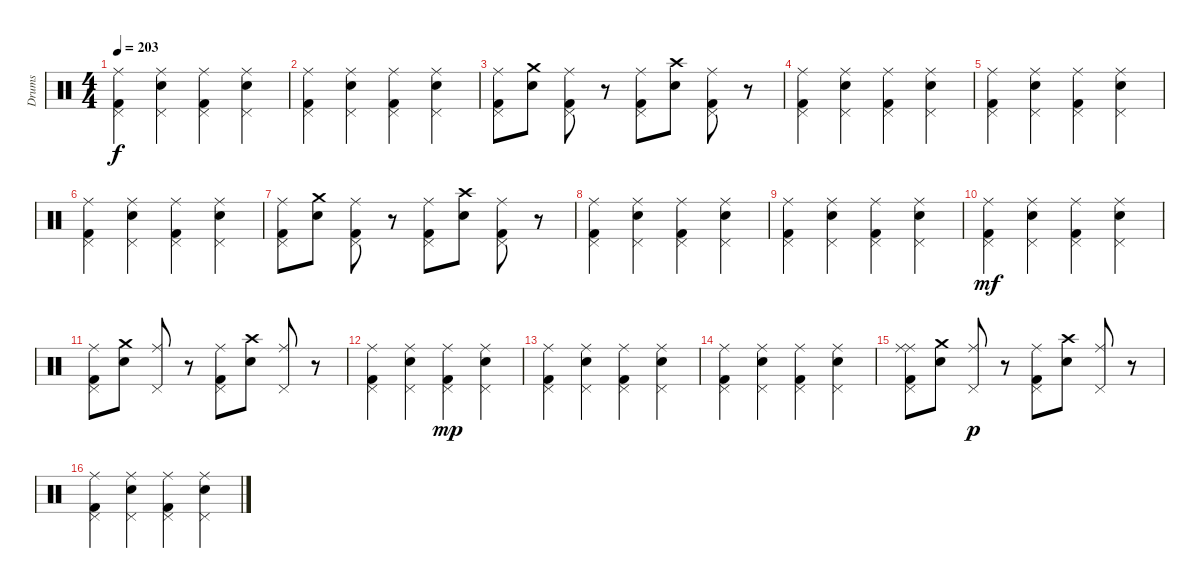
\track ("Drums" "Drums") {instrument percussion}
\staff {score}
\articulation defaults
\ts (4 4)
\tempo 203
\clef neutral
\ks c
("Ride (middle)" "Pedal Hi-Hat (hit)" "Kick (hit) 2").4{dy f} ("Ride (middle)" "Pedal Hi-Hat (hit)" "Snare (hit) 2").4 ("Ride (middle)" "Pedal Hi-Hat (hit)" "Kick (hit) 2").4 ("Ride (middle)" "Pedal Hi-Hat (hit)" "Snare (hit) 2").4 |
("Ride (middle)" "Pedal Hi-Hat (hit)" "Kick (hit) 2").4 ("Ride (middle)" "Pedal Hi-Hat (hit)" "Snare (hit) 2").4 ("Ride (middle)" "Pedal Hi-Hat (hit)" "Kick (hit) 2").4 ("Ride (middle)" "Pedal Hi-Hat (hit)" "Snare (hit) 2").4 |
("Ride (middle)" "Pedal Hi-Hat (hit)" "Kick (hit) 2").8 ("Crash medium (hit)" "Snare (hit) 2").8 ("Kick (hit) 2" "Ride (middle)" "Pedal Hi-Hat (hit)").8 r.8 ("Ride (middle)" "Pedal Hi-Hat (hit)" "Kick (hit) 2").8 ("Crash high (hit)" "Snare (hit) 2").8 ("Kick (hit) 2" "Ride (middle)" "Pedal Hi-Hat (hit)").8 r.8 |
("Ride (middle)" "Pedal Hi-Hat (hit)" "Kick (hit) 2").4 ("Ride (middle)" "Pedal Hi-Hat (hit)" "Snare (hit) 2").4 ("Ride (middle)" "Pedal Hi-Hat (hit)" "Kick (hit) 2").4 ("Ride (middle)" "Pedal Hi-Hat (hit)" "Snare (hit) 2").4 |
("Ride (middle)" "Pedal Hi-Hat (hit)" "Kick (hit) 2").4 ("Ride (middle)" "Pedal Hi-Hat (hit)" "Snare (hit) 2").4 ("Ride (middle)" "Pedal Hi-Hat (hit)" "Kick (hit) 2").4 ("Ride (middle)" "Pedal Hi-Hat (hit)" "Snare (hit) 2").4 |
("Ride (middle)" "Pedal Hi-Hat (hit)" "Kick (hit) 2").4 ("Ride (middle)" "Pedal Hi-Hat (hit)" "Snare (hit) 2").4 ("Ride (middle)" "Pedal Hi-Hat (hit)" "Kick (hit) 2").4 ("Ride (middle)" "Pedal Hi-Hat (hit)" "Snare (hit) 2").4 |
("Ride (middle)" "Pedal Hi-Hat (hit)" "Kick (hit) 2").8 ("Crash medium (hit)" "Snare (hit) 2").8 ("Kick (hit) 2" "Ride (middle)" "Pedal Hi-Hat (hit)").8 r.8 ("Ride (middle)" "Pedal Hi-Hat (hit)" "Kick (hit) 2").8 ("Crash high (hit)" "Snare (hit) 2").8 ("Kick (hit) 2" "Ride (middle)" "Pedal Hi-Hat (hit)").8 r.8 |
("Ride (middle)" "Pedal Hi-Hat (hit)" "Kick (hit) 2").4 ("Ride (middle)" "Pedal Hi-Hat (hit)" "Snare (hit) 2").4 ("Ride (middle)" "Pedal Hi-Hat (hit)" "Kick (hit) 2").4 ("Ride (middle)" "Pedal Hi-Hat (hit)" "Snare (hit) 2").4 |
("Ride (middle)" "Pedal Hi-Hat (hit)" "Kick (hit) 2").4 ("Ride (middle)" "Pedal Hi-Hat (hit)" "Snare (hit) 2").4 ("Ride (middle)" "Pedal Hi-Hat (hit)" "Kick (hit) 2").4 ("Ride (middle)" "Pedal Hi-Hat (hit)" "Snare (hit) 2").4 |
("Ride (middle)" "Pedal Hi-Hat (hit)" "Kick (hit) 2").4{dy mf} ("Ride (middle)" "Pedal Hi-Hat (hit)" "Snare (hit) 2").4 ("Ride (middle)" "Pedal Hi-Hat (hit)" "Kick (hit) 2").4 ("Ride (middle)" "Pedal Hi-Hat (hit)" "Snare (hit) 2").4 |
("Ride (middle)" "Pedal Hi-Hat (hit)" "Kick (hit) 2").8 ("Snare (hit) 2" "Crash medium (hit)").8 ("Ride (middle)" "Pedal Hi-Hat (hit)").8 r.8 ("Ride (middle)" "Pedal Hi-Hat (hit)" "Kick (hit) 2").8 ("Crash high (hit)" "Snare (hit) 2").8 ("Ride (middle)" "Pedal Hi-Hat (hit)").8 r.8 |
("Ride (middle)" "Pedal Hi-Hat (hit)" "Kick (hit) 2").4 ("Ride (middle)" "Snare (hit) 2" "Pedal Hi-Hat (hit)").4 ("Ride (middle)" "Pedal Hi-Hat (hit)" "Kick (hit) 2").4{dy mp} ("Ride (middle)" "Pedal Hi-Hat (hit)" "Snare (hit) 2").4 |
("Ride (middle)" "Pedal Hi-Hat (hit)" "Kick (hit) 2").4 ("Ride (middle)" "Pedal Hi-Hat (hit)" "Snare (hit) 2").4 ("Ride (middle)" "Pedal Hi-Hat (hit)" "Kick (hit) 2").4 ("Ride (middle)" "Pedal Hi-Hat (hit)" "Snare (hit) 2").4 |
("Ride (middle)" "Pedal Hi-Hat (hit)" "Kick (hit) 2").4 ("Ride (middle)" "Pedal Hi-Hat (hit)" "Snare (hit) 2").4 ("Ride (middle)" "Pedal Hi-Hat (hit)" "Kick (hit) 2").4 ("Ride (middle)" "Pedal Hi-Hat (hit)" "Snare (hit) 2").4 |
("Ride (middle)" "Ride (middle)" "Pedal Hi-Hat (hit)" "Kick (hit) 2").8 ("Snare (hit) 2" "Crash medium (hit)").8 ("Ride (middle)" "Pedal Hi-Hat (hit)").8{dy p} r.8 ("Ride (middle)" "Pedal Hi-Hat (hit)" "Kick (hit) 2").8 ("Crash high (hit)" "Snare (hit) 2").8 ("Ride (middle)" "Pedal Hi-Hat (hit)").8 r.8 |
("Ride (middle)" "Pedal Hi-Hat (hit)" "Kick (hit) 2").4 ("Ride (middle)" "Pedal Hi-Hat (hit)" "Snare (hit) 2").4 ("Ride (middle)" "Pedal Hi-Hat (hit)" "Kick (hit) 2").4 ("Ride (middle)" "Pedal Hi-Hat (hit)" "Snare (hit) 2").4
